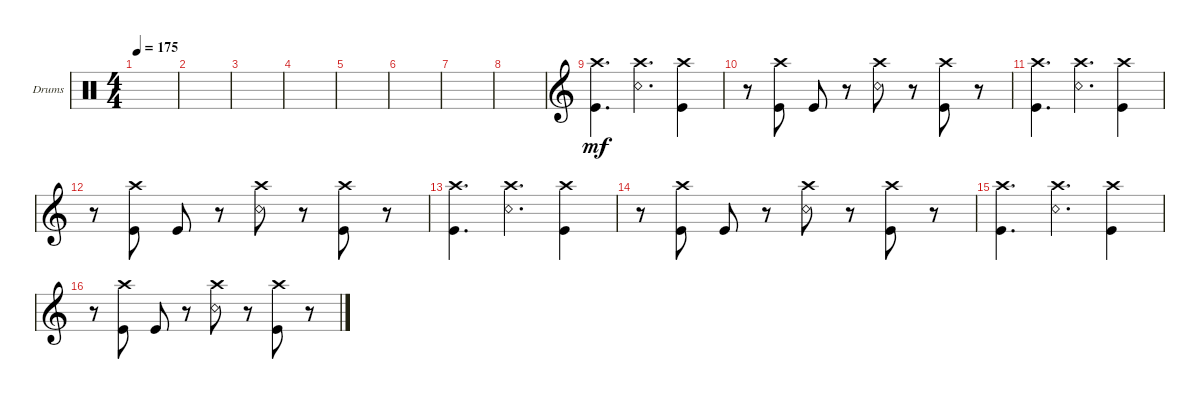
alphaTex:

\defaultSystemsLayout 4
\bracketExtendMode groupsimilarinstruments
\firstSystemTrackNameOrientation horizontal
\otherSystemsTrackNameOrientation horizontal
\track ("Drumkit" "Drums") {instrument percussion}
\staff {score}
\articulation defaults
\ts (4 4)
\tempo 175
\clef neutral
\ks c
|
|
|
|
|
|
|
|
\clef g2
("Kick (hit)" "Crash high (hit)").4{d dy mf} ("Snare (rim shot)" "Crash high (hit)").4{d} ("Kick (hit)" "Crash high (hit)").4 |
r.8 ("Kick (hit)" "Crash high (hit)").8 "Kick (hit)".8 r.8 ("Snare (rim shot)" "Crash high (hit)").8 r.8 ("Kick (hit)" "Crash high (hit)").8 r.8 |
("Kick (hit)" "Crash high (hit)").4{d} ("Snare (rim shot)" "Crash high (hit)").4{d} ("Kick (hit)" "Crash high (hit)").4 |
r.8 ("Kick (hit)" "Crash high (hit)").8 "Kick (hit)".8 r.8 ("Snare (rim shot)" "Crash high (hit)").8 r.8 ("Kick (hit)" "Crash high (hit)").8 r.8 |
("Kick (hit)" "Crash high (hit)").4{d} ("Snare (rim shot)" "Crash high (hit)").4{d} ("Kick (hit)" "Crash high (hit)").4 |
r.8 ("Kick (hit)" "Crash high (hit)").8 "Kick (hit)".8 r.8 ("Snare (rim shot)" "Crash high (hit)").8 r.8 ("Kick (hit)" "Crash high (hit)").8 r.8 |
("Kick (hit)" "Crash high (hit)").4{d} ("Snare (rim shot)" "Crash high (hit)").4{d} ("Kick (hit)" "Crash high (hit)").4 |
r.8 ("Kick (hit)" "Crash high (hit)").8 "Kick (hit)".8 r.8 ("Snare (rim shot)" "Crash high (hit)").8 r.8 ("Kick (hit)" "Crash high (hit)").8 r.8
